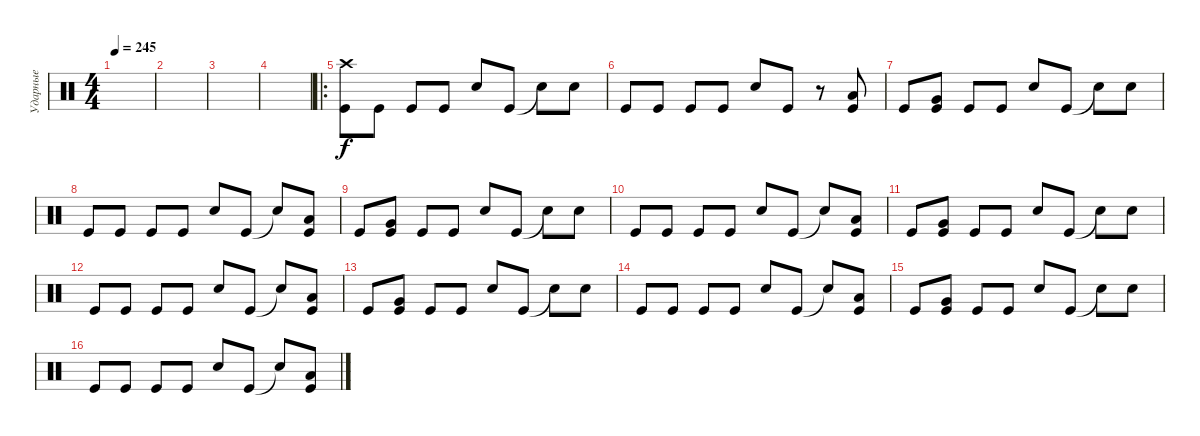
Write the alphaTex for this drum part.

\track ("Ударные" "Ударные") {instrument percussion}
\staff {score}
\articulation defaults
\ts (4 4)
\tempo 245
\clef neutral
\ks c
|
|
|
|
\ro
("Kick (hit)" "Crash high (hit)").8 "Kick (hit)".8 "Kick (hit)".8 "Kick (hit)".8 "Electric Snare (hit)".8 "Kick (hit)".8 "Snare (hit)"{t}.8 "Electric Snare (hit)".8 |
"Kick (hit)".8 "Kick (hit)".8 "Kick (hit)".8 "Kick (hit)".8 "Electric Snare (hit)".8 "Kick (hit)".8 r.8 ("Kick (hit)" "Low Tom (hit)").8 |
"Kick (hit)".8 ("Kick (hit)" "Very Low Tom (hit)").8 "Kick (hit)".8 "Kick (hit)".8 "Electric Snare (hit)".8 "Kick (hit)".8 "Snare (hit)"{t}.8 "Electric Snare (hit)".8 |
"Kick (hit)".8 "Kick (hit)".8 "Kick (hit)".8 "Kick (hit)".8 "Electric Snare (hit)".8 "Kick (hit)".8 "Snare (hit)"{t}.8 ("Kick (hit)" "Low Tom (hit)").8 |
"Kick (hit)".8 ("Kick (hit)" "Very Low Tom (hit)").8 "Kick (hit)".8 "Kick (hit)".8 "Electric Snare (hit)".8 "Kick (hit)".8 "Snare (hit)"{t}.8 "Electric Snare (hit)".8 |
"Kick (hit)".8 "Kick (hit)".8 "Kick (hit)".8 "Kick (hit)".8 "Electric Snare (hit)".8 "Kick (hit)".8 "Snare (hit)"{t}.8 ("Kick (hit)" "Low Tom (hit)").8 |
"Kick (hit)".8 ("Kick (hit)" "Very Low Tom (hit)").8 "Kick (hit)".8 "Kick (hit)".8 "Electric Snare (hit)".8 "Kick (hit)".8 "Snare (hit)"{t}.8 "Electric Snare (hit)".8 |
"Kick (hit)".8 "Kick (hit)".8 "Kick (hit)".8 "Kick (hit)".8 "Electric Snare (hit)".8 "Kick (hit)".8 "Snare (hit)"{t}.8 ("Kick (hit)" "Low Tom (hit)").8 |
"Kick (hit)".8 ("Kick (hit)" "Very Low Tom (hit)").8 "Kick (hit)".8 "Kick (hit)".8 "Electric Snare (hit)".8 "Kick (hit)".8 "Snare (hit)"{t}.8 "Electric Snare (hit)".8 |
"Kick (hit)".8 "Kick (hit)".8 "Kick (hit)".8 "Kick (hit)".8 "Electric Snare (hit)".8 "Kick (hit)".8 "Snare (hit)"{t}.8 ("Kick (hit)" "Low Tom (hit)").8 |
"Kick (hit)".8 ("Kick (hit)" "Very Low Tom (hit)").8 "Kick (hit)".8 "Kick (hit)".8 "Electric Snare (hit)".8 "Kick (hit)".8 "Snare (hit)"{t}.8 "Electric Snare (hit)".8 |
"Kick (hit)".8 "Kick (hit)".8 "Kick (hit)".8 "Kick (hit)".8 "Electric Snare (hit)".8 "Kick (hit)".8 "Snare (hit)"{t}.8 ("Kick (hit)" "Low Tom (hit)").8
